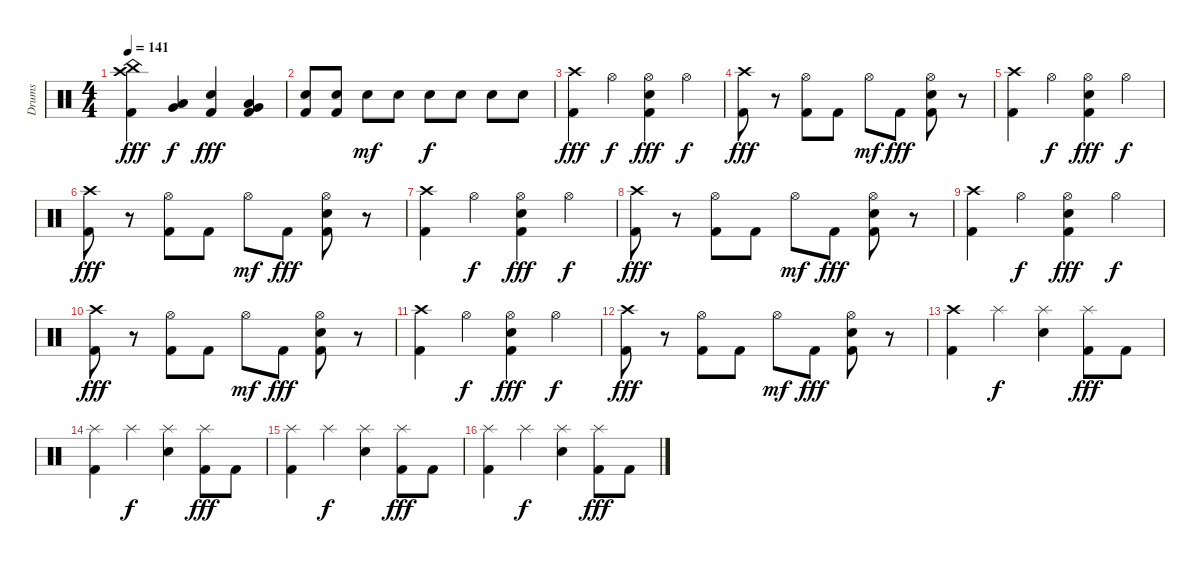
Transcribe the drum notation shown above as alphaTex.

\track ("Drums" "Drums") {instrument percussion}
\staff {score}
\articulation defaults
\ts (4 4)
\tempo 141
\clef neutral
\ks c
("Crash high (hit)" "China (hit)" "Kick (hit) 2").4{dy fff} ("Low Tom (hit)" "Very Low Tom (hit)").4{dy f} ("Electric Snare (hit)" "Kick (hit) 2").4{dy fff} ("Low Tom (hit)" "Very Low Tom (hit)" "Kick (hit) 2").4 |
("Electric Snare (hit)" "Kick (hit) 2").8 ("Electric Snare (hit)" "Kick (hit) 2").8 "Electric Snare (hit)".8{dy mf} "Electric Snare (hit)".8 "Electric Snare (hit)".8{dy f} "Electric Snare (hit)".8 "Electric Snare (hit)".8 "Electric Snare (hit)".8 |
("Crash high (hit)" "Kick (hit) 2").4{dy fff} "Hi-Hat (open)".4{dy f} ("Hi-Hat (open)" "Electric Snare (hit)" "Kick (hit) 2").4{dy fff} "Hi-Hat (open)".4{dy f} |
("Crash high (hit)" "Kick (hit) 2").8{dy fff} r.8 ("Hi-Hat (open)" "Kick (hit) 2").8 "Kick (hit) 2".8 "Hi-Hat (open)".8{dy mf} "Kick (hit) 2".8{dy fff} ("Hi-Hat (open)" "Electric Snare (hit)" "Kick (hit) 2").8 r.8 |
("Crash high (hit)" "Kick (hit) 2").4 "Hi-Hat (open)".4{dy f} ("Hi-Hat (open)" "Electric Snare (hit)" "Kick (hit) 2").4{dy fff} "Hi-Hat (open)".4{dy f} |
("Crash high (hit)" "Kick (hit) 2").8{dy fff} r.8 ("Hi-Hat (open)" "Kick (hit) 2").8 "Kick (hit) 2".8 "Hi-Hat (open)".8{dy mf} "Kick (hit) 2".8{dy fff} ("Hi-Hat (open)" "Electric Snare (hit)" "Kick (hit) 2").8 r.8 |
("Crash high (hit)" "Kick (hit) 2").4 "Hi-Hat (open)".4{dy f} ("Hi-Hat (open)" "Electric Snare (hit)" "Kick (hit) 2").4{dy fff} "Hi-Hat (open)".4{dy f} |
("Crash high (hit)" "Kick (hit) 2").8{dy fff} r.8 ("Hi-Hat (open)" "Kick (hit) 2").8 "Kick (hit) 2".8 "Hi-Hat (open)".8{dy mf} "Kick (hit) 2".8{dy fff} ("Hi-Hat (open)" "Electric Snare (hit)" "Kick (hit) 2").8 r.8 |
("Crash high (hit)" "Kick (hit) 2").4 "Hi-Hat (open)".4{dy f} ("Hi-Hat (open)" "Electric Snare (hit)" "Kick (hit) 2").4{dy fff} "Hi-Hat (open)".4{dy f} |
("Crash high (hit)" "Kick (hit) 2").8{dy fff} r.8 ("Hi-Hat (open)" "Kick (hit) 2").8 "Kick (hit) 2".8 "Hi-Hat (open)".8{dy mf} "Kick (hit) 2".8{dy fff} ("Hi-Hat (open)" "Electric Snare (hit)" "Kick (hit) 2").8 r.8 |
("Crash high (hit)" "Kick (hit) 2").4 "Hi-Hat (open)".4{dy f} ("Hi-Hat (open)" "Electric Snare (hit)" "Kick (hit) 2").4{dy fff} "Hi-Hat (open)".4{dy f} |
("Crash high (hit)" "Kick (hit) 2").8{dy fff} r.8 ("Hi-Hat (open)" "Kick (hit) 2").8 "Kick (hit) 2".8 "Hi-Hat (open)".8{dy mf} "Kick (hit) 2".8{dy fff} ("Hi-Hat (open)" "Electric Snare (hit)" "Kick (hit) 2").8 r.8 |
("Crash high (hit)" "Kick (hit) 2").4 "Splash (hit)".4{dy f} ("Splash (hit)" "Electric Snare (hit)").4 ("Splash (hit)" "Kick (hit) 2").8{dy fff} "Kick (hit) 2".8 |
("Splash (hit)" "Kick (hit) 2").4 "Splash (hit)".4{dy f} ("Splash (hit)" "Electric Snare (hit)").4 ("Splash (hit)" "Kick (hit) 2").8{dy fff} "Kick (hit) 2".8 |
("Splash (hit)" "Kick (hit) 2").4 "Splash (hit)".4{dy f} ("Splash (hit)" "Electric Snare (hit)").4 ("Splash (hit)" "Kick (hit) 2").8{dy fff} "Kick (hit) 2".8 |
("Splash (hit)" "Kick (hit) 2").4 "Splash (hit)".4{dy f} ("Splash (hit)" "Electric Snare (hit)").4 ("Splash (hit)" "Kick (hit) 2").8{dy fff} "Kick (hit) 2".8
